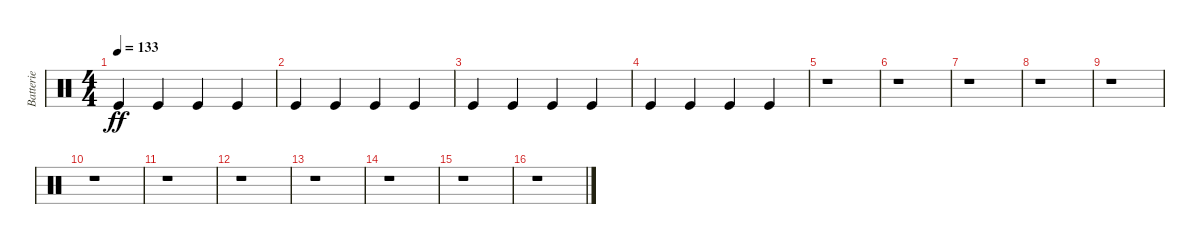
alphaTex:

\track ("Batterie" "Batterie") {instrument percussion}
\staff {score}
\articulation defaults
\ts (4 4)
\tempo 133
\clef neutral
\ks c "Kick (hit)".4{dy ff} "Kick (hit)".4 "Kick (hit)".4 "Kick (hit)".4
|
"Kick (hit)".4 "Kick (hit)".4 "Kick (hit)".4 "Kick (hit)".4 |
"Kick (hit)".4 "Kick (hit)".4 "Kick (hit)".4 "Kick (hit)".4 |
"Kick (hit)".4 "Kick (hit)".4 "Kick (hit)".4 "Kick (hit)".4 |
r.1 |
r.1 |
r.1 |
r.1 |
r.1 |
r.1 |
r.1 |
r.1 |
r.1 |
r.1 |
r.1 |
r.1
